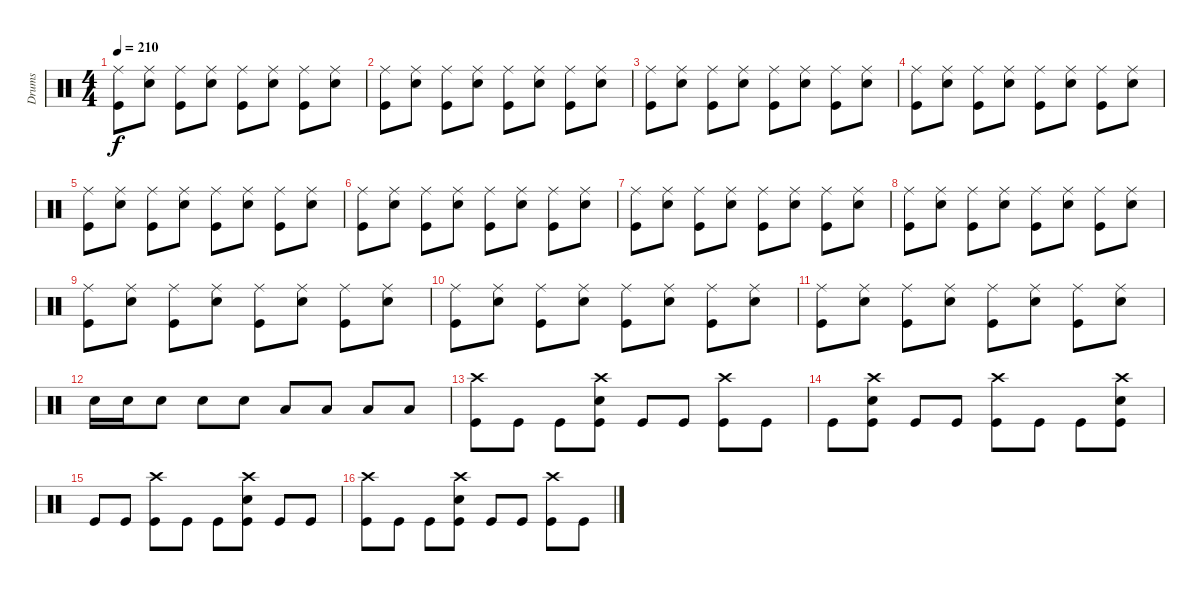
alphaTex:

\track ("Drums" "Drums") {instrument percussion}
\staff {score}
\articulation defaults
\ts (4 4)
\tempo 210
\clef neutral
\ks c
("Ride (middle)" "Kick (hit)").8{dy f} ("Electric Snare (hit)" "Ride (middle)").8 ("Ride (middle)" "Kick (hit)").8 ("Electric Snare (hit)" "Ride (middle)").8 ("Ride (middle)" "Kick (hit)").8 ("Electric Snare (hit)" "Ride (middle)").8 ("Ride (middle)" "Kick (hit)").8 ("Electric Snare (hit)" "Ride (middle)").8 |
("Ride (middle)" "Kick (hit)").8 ("Electric Snare (hit)" "Ride (middle)").8 ("Ride (middle)" "Kick (hit)").8 ("Electric Snare (hit)" "Ride (middle)").8 ("Ride (middle)" "Kick (hit)").8 ("Electric Snare (hit)" "Ride (middle)").8 ("Ride (middle)" "Kick (hit)").8 ("Electric Snare (hit)" "Ride (middle)").8 |
("Ride (middle)" "Kick (hit)").8 ("Electric Snare (hit)" "Ride (middle)").8 ("Ride (middle)" "Kick (hit)").8 ("Electric Snare (hit)" "Ride (middle)").8 ("Ride (middle)" "Kick (hit)").8 ("Electric Snare (hit)" "Ride (middle)").8 ("Ride (middle)" "Kick (hit)").8 ("Electric Snare (hit)" "Ride (middle)").8 |
("Ride (middle)" "Kick (hit)").8 ("Electric Snare (hit)" "Ride (middle)").8 ("Ride (middle)" "Kick (hit)").8 ("Electric Snare (hit)" "Ride (middle)").8 ("Ride (middle)" "Kick (hit)").8 ("Electric Snare (hit)" "Ride (middle)").8 ("Ride (middle)" "Kick (hit)").8 ("Electric Snare (hit)" "Ride (middle)").8 |
("Ride (middle)" "Kick (hit)").8 ("Electric Snare (hit)" "Ride (middle)").8 ("Ride (middle)" "Kick (hit)").8 ("Electric Snare (hit)" "Ride (middle)").8 ("Ride (middle)" "Kick (hit)").8 ("Electric Snare (hit)" "Ride (middle)").8 ("Ride (middle)" "Kick (hit)").8 ("Electric Snare (hit)" "Ride (middle)").8 |
("Ride (middle)" "Kick (hit)").8 ("Electric Snare (hit)" "Ride (middle)").8 ("Ride (middle)" "Kick (hit)").8 ("Electric Snare (hit)" "Ride (middle)").8 ("Ride (middle)" "Kick (hit)").8 ("Electric Snare (hit)" "Ride (middle)").8 ("Ride (middle)" "Kick (hit)").8 ("Electric Snare (hit)" "Ride (middle)").8 |
("Ride (middle)" "Kick (hit)").8 ("Electric Snare (hit)" "Ride (middle)").8 ("Ride (middle)" "Kick (hit)").8 ("Electric Snare (hit)" "Ride (middle)").8 ("Ride (middle)" "Kick (hit)").8 ("Electric Snare (hit)" "Ride (middle)").8 ("Ride (middle)" "Kick (hit)").8 ("Electric Snare (hit)" "Ride (middle)").8 |
("Ride (middle)" "Kick (hit)").8 ("Electric Snare (hit)" "Ride (middle)").8 ("Ride (middle)" "Kick (hit)").8 ("Electric Snare (hit)" "Ride (middle)").8 ("Ride (middle)" "Kick (hit)").8 ("Electric Snare (hit)" "Ride (middle)").8 ("Ride (middle)" "Kick (hit)").8 ("Electric Snare (hit)" "Ride (middle)").8 |
("Ride (middle)" "Kick (hit)").8 ("Electric Snare (hit)" "Ride (middle)").8 ("Ride (middle)" "Kick (hit)").8 ("Electric Snare (hit)" "Ride (middle)").8 ("Ride (middle)" "Kick (hit)").8 ("Electric Snare (hit)" "Ride (middle)").8 ("Ride (middle)" "Kick (hit)").8 ("Electric Snare (hit)" "Ride (middle)").8 |
("Ride (middle)" "Kick (hit)").8 ("Electric Snare (hit)" "Ride (middle)").8 ("Ride (middle)" "Kick (hit)").8 ("Electric Snare (hit)" "Ride (middle)").8 ("Ride (middle)" "Kick (hit)").8 ("Electric Snare (hit)" "Ride (middle)").8 ("Ride (middle)" "Kick (hit)").8 ("Electric Snare (hit)" "Ride (middle)").8 |
("Ride (middle)" "Kick (hit)").8 ("Electric Snare (hit)" "Ride (middle)").8 ("Ride (middle)" "Kick (hit)").8 ("Electric Snare (hit)" "Ride (middle)").8 ("Ride (middle)" "Kick (hit)").8 ("Electric Snare (hit)" "Ride (middle)").8 ("Ride (middle)" "Kick (hit)").8 ("Electric Snare (hit)" "Ride (middle)").8 |
"Electric Snare (hit)".16 "Electric Snare (hit)".16 "Electric Snare (hit)".8 "Electric Snare (hit)".8 "Electric Snare (hit)".8 "Low Tom (hit)".8 "Low Tom (hit)".8 "Low Tom (hit)".8 "Low Floor Tom (hit)".8 |
("Crash high (hit)" "Kick (hit)").8 "Kick (hit)".8 "Kick (hit)".8 ("Electric Snare (hit)" "Crash high (hit)" "Kick (hit)").8 "Kick (hit)".8 "Kick (hit)".8 ("Crash high (hit)" "Kick (hit)").8 "Kick (hit)".8 |
"Kick (hit)".8 ("Electric Snare (hit)" "Crash high (hit)" "Kick (hit)").8 "Kick (hit)".8 "Kick (hit)".8 ("Crash high (hit)" "Kick (hit)").8 "Kick (hit)".8 "Kick (hit)".8 ("Electric Snare (hit)" "Crash high (hit)" "Kick (hit)").8 |
"Kick (hit)".8 "Kick (hit)".8 ("Crash high (hit)" "Kick (hit)").8 "Kick (hit)".8 "Kick (hit)".8 ("Electric Snare (hit)" "Crash high (hit)" "Kick (hit)").8 "Kick (hit)".8 "Kick (hit)".8 |
("Crash high (hit)" "Kick (hit)").8 "Kick (hit)".8 "Kick (hit)".8 ("Electric Snare (hit)" "Crash high (hit)" "Kick (hit)").8 "Kick (hit)".8 "Kick (hit)".8 ("Crash high (hit)" "Kick (hit)").8 "Kick (hit)".8
